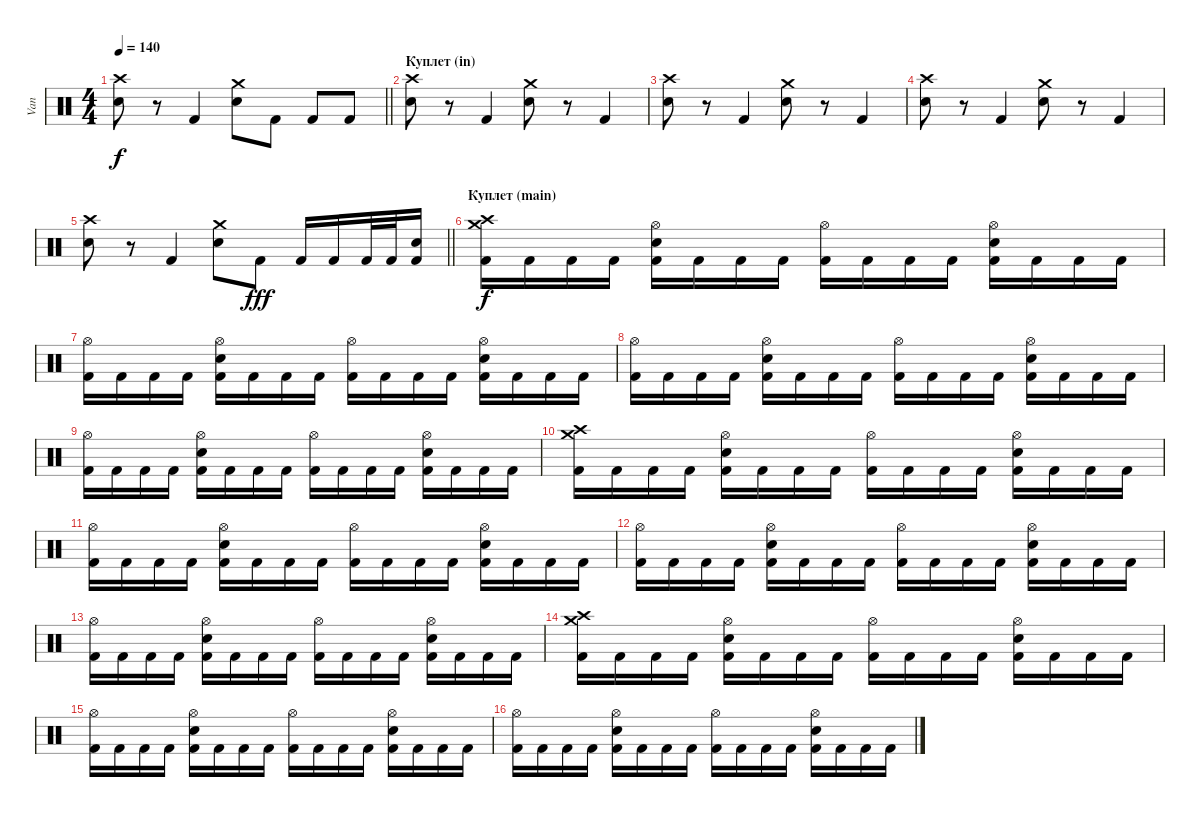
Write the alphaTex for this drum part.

\track ("Van" "Van") {instrument percussion}
\staff {score}
\articulation defaults
\ts (4 4)
\tempo 140
\clef neutral
\barLineRight lightlight
\ks c
("Crash high (hit)" "Electric Snare (hit)").8{dy f} r.8 "Kick (hit) 2".4 ("Crash medium (hit)" "Electric Snare (hit)").8 "Kick (hit) 2".8 "Kick (hit) 2".8 "Kick (hit) 2".8 |
\section ("" "Куплет (in)")
("Crash high (hit)" "Electric Snare (hit)").8 r.8 "Kick (hit) 2".4 ("Crash medium (hit)" "Electric Snare (hit)").8 r.8 "Kick (hit) 2".4 |
("Crash high (hit)" "Electric Snare (hit)").8 r.8 "Kick (hit) 2".4 ("Crash medium (hit)" "Electric Snare (hit)").8 r.8 "Kick (hit) 2".4 |
("Crash high (hit)" "Electric Snare (hit)").8 r.8 "Kick (hit) 2".4 ("Crash medium (hit)" "Electric Snare (hit)").8 r.8 "Kick (hit) 2".4 |
\barLineRight lightlight
("Crash high (hit)" "Electric Snare (hit)").8 r.8 "Kick (hit) 2".4 ("Crash medium (hit)" "Electric Snare (hit)").8 "Kick (hit) 2".8{dy fff} "Kick (hit) 2".16 "Kick (hit) 2".16 "Kick (hit) 2".32 "Kick (hit) 2".32 ("Electric Snare (hit)" "Kick (hit) 2").16 |
\section ("" "Куплет (main)")
("Crash high (hit)" "Crash medium (hit)" "Kick (hit) 2").16{dy f} "Kick (hit) 2".16 "Kick (hit) 2".16 "Kick (hit) 2".16 ("Hi-Hat (open)" "Electric Snare (hit)" "Kick (hit) 2").16 "Kick (hit) 2".16 "Kick (hit) 2".16 "Kick (hit) 2".16 ("Hi-Hat (open)" "Kick (hit) 2").16 "Kick (hit) 2".16 "Kick (hit) 2".16 "Kick (hit) 2".16 ("Hi-Hat (open)" "Electric Snare (hit)" "Kick (hit) 2").16 "Kick (hit) 2".16 "Kick (hit) 2".16 "Kick (hit) 2".16 |
("Hi-Hat (open)" "Kick (hit) 2").16 "Kick (hit) 2".16 "Kick (hit) 2".16 "Kick (hit) 2".16 ("Hi-Hat (open)" "Electric Snare (hit)" "Kick (hit) 2").16 "Kick (hit) 2".16 "Kick (hit) 2".16 "Kick (hit) 2".16 ("Hi-Hat (open)" "Kick (hit) 2").16 "Kick (hit) 2".16 "Kick (hit) 2".16 "Kick (hit) 2".16 ("Hi-Hat (open)" "Electric Snare (hit)" "Kick (hit) 2").16 "Kick (hit) 2".16 "Kick (hit) 2".16 "Kick (hit) 2".16 |
("Hi-Hat (open)" "Kick (hit) 2").16 "Kick (hit) 2".16 "Kick (hit) 2".16 "Kick (hit) 2".16 ("Hi-Hat (open)" "Electric Snare (hit)" "Kick (hit) 2").16 "Kick (hit) 2".16 "Kick (hit) 2".16 "Kick (hit) 2".16 ("Hi-Hat (open)" "Kick (hit) 2").16 "Kick (hit) 2".16 "Kick (hit) 2".16 "Kick (hit) 2".16 ("Hi-Hat (open)" "Electric Snare (hit)" "Kick (hit) 2").16 "Kick (hit) 2".16 "Kick (hit) 2".16 "Kick (hit) 2".16 |
("Hi-Hat (open)" "Kick (hit) 2").16 "Kick (hit) 2".16 "Kick (hit) 2".16 "Kick (hit) 2".16 ("Hi-Hat (open)" "Electric Snare (hit)" "Kick (hit) 2").16 "Kick (hit) 2".16 "Kick (hit) 2".16 "Kick (hit) 2".16 ("Hi-Hat (open)" "Kick (hit) 2").16 "Kick (hit) 2".16 "Kick (hit) 2".16 "Kick (hit) 2".16 ("Hi-Hat (open)" "Electric Snare (hit)" "Kick (hit) 2").16 "Kick (hit) 2".16 "Kick (hit) 2".16 "Kick (hit) 2".16 |
("Crash high (hit)" "Crash medium (hit)" "Kick (hit) 2").16 "Kick (hit) 2".16 "Kick (hit) 2".16 "Kick (hit) 2".16 ("Hi-Hat (open)" "Electric Snare (hit)" "Kick (hit) 2").16 "Kick (hit) 2".16 "Kick (hit) 2".16 "Kick (hit) 2".16 ("Hi-Hat (open)" "Kick (hit) 2").16 "Kick (hit) 2".16 "Kick (hit) 2".16 "Kick (hit) 2".16 ("Hi-Hat (open)" "Electric Snare (hit)" "Kick (hit) 2").16 "Kick (hit) 2".16 "Kick (hit) 2".16 "Kick (hit) 2".16 |
("Hi-Hat (open)" "Kick (hit) 2").16 "Kick (hit) 2".16 "Kick (hit) 2".16 "Kick (hit) 2".16 ("Hi-Hat (open)" "Electric Snare (hit)" "Kick (hit) 2").16 "Kick (hit) 2".16 "Kick (hit) 2".16 "Kick (hit) 2".16 ("Hi-Hat (open)" "Kick (hit) 2").16 "Kick (hit) 2".16 "Kick (hit) 2".16 "Kick (hit) 2".16 ("Hi-Hat (open)" "Electric Snare (hit)" "Kick (hit) 2").16 "Kick (hit) 2".16 "Kick (hit) 2".16 "Kick (hit) 2".16 |
("Hi-Hat (open)" "Kick (hit) 2").16 "Kick (hit) 2".16 "Kick (hit) 2".16 "Kick (hit) 2".16 ("Hi-Hat (open)" "Electric Snare (hit)" "Kick (hit) 2").16 "Kick (hit) 2".16 "Kick (hit) 2".16 "Kick (hit) 2".16 ("Hi-Hat (open)" "Kick (hit) 2").16 "Kick (hit) 2".16 "Kick (hit) 2".16 "Kick (hit) 2".16 ("Hi-Hat (open)" "Electric Snare (hit)" "Kick (hit) 2").16 "Kick (hit) 2".16 "Kick (hit) 2".16 "Kick (hit) 2".16 |
("Hi-Hat (open)" "Kick (hit) 2").16 "Kick (hit) 2".16 "Kick (hit) 2".16 "Kick (hit) 2".16 ("Hi-Hat (open)" "Electric Snare (hit)" "Kick (hit) 2").16 "Kick (hit) 2".16 "Kick (hit) 2".16 "Kick (hit) 2".16 ("Hi-Hat (open)" "Kick (hit) 2").16 "Kick (hit) 2".16 "Kick (hit) 2".16 "Kick (hit) 2".16 ("Hi-Hat (open)" "Electric Snare (hit)" "Kick (hit) 2").16 "Kick (hit) 2".16 "Kick (hit) 2".16 "Kick (hit) 2".16 |
("Crash high (hit)" "Crash medium (hit)" "Kick (hit) 2").16 "Kick (hit) 2".16 "Kick (hit) 2".16 "Kick (hit) 2".16 ("Hi-Hat (open)" "Electric Snare (hit)" "Kick (hit) 2").16 "Kick (hit) 2".16 "Kick (hit) 2".16 "Kick (hit) 2".16 ("Hi-Hat (open)" "Kick (hit) 2").16 "Kick (hit) 2".16 "Kick (hit) 2".16 "Kick (hit) 2".16 ("Hi-Hat (open)" "Electric Snare (hit)" "Kick (hit) 2").16 "Kick (hit) 2".16 "Kick (hit) 2".16 "Kick (hit) 2".16 |
("Hi-Hat (open)" "Kick (hit) 2").16 "Kick (hit) 2".16 "Kick (hit) 2".16 "Kick (hit) 2".16 ("Hi-Hat (open)" "Electric Snare (hit)" "Kick (hit) 2").16 "Kick (hit) 2".16 "Kick (hit) 2".16 "Kick (hit) 2".16 ("Hi-Hat (open)" "Kick (hit) 2").16 "Kick (hit) 2".16 "Kick (hit) 2".16 "Kick (hit) 2".16 ("Hi-Hat (open)" "Electric Snare (hit)" "Kick (hit) 2").16 "Kick (hit) 2".16 "Kick (hit) 2".16 "Kick (hit) 2".16 |
("Hi-Hat (open)" "Kick (hit) 2").16 "Kick (hit) 2".16 "Kick (hit) 2".16 "Kick (hit) 2".16 ("Hi-Hat (open)" "Electric Snare (hit)" "Kick (hit) 2").16 "Kick (hit) 2".16 "Kick (hit) 2".16 "Kick (hit) 2".16 ("Hi-Hat (open)" "Kick (hit) 2").16 "Kick (hit) 2".16 "Kick (hit) 2".16 "Kick (hit) 2".16 ("Hi-Hat (open)" "Electric Snare (hit)" "Kick (hit) 2").16 "Kick (hit) 2".16 "Kick (hit) 2".16 "Kick (hit) 2".16
